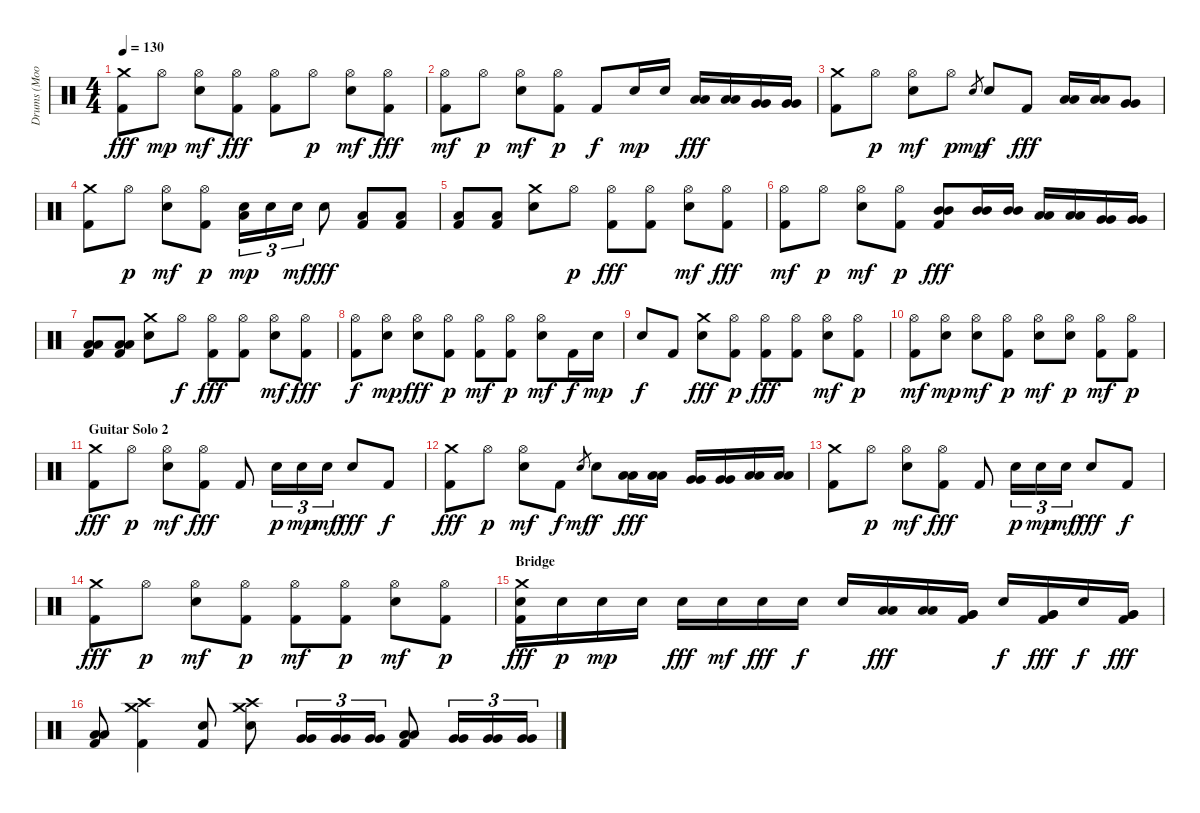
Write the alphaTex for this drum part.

\track ("Drums (Moon (Who else?))" "Drums (Moo") {instrument percussion}
\staff {score}
\articulation defaults
\ts (4 4)
\tempo 130
\clef neutral
\ks c
("Crash medium (hit)" "Kick (hit) 2").8{dy fff} "Hi-Hat (open)".8{dy mp} ("Hi-Hat (open)" "Snare (hit) 2").8{dy mf} ("Hi-Hat (open)" "Kick (hit) 2").8{dy fff} ("Hi-Hat (open)" "Kick (hit) 2").8 "Hi-Hat (open)".8{dy p} ("Hi-Hat (open)" "Snare (hit) 2").8{dy mf} ("Hi-Hat (open)" "Kick (hit) 2").8{dy fff} |
("Hi-Hat (open)" "Kick (hit) 2").8{dy mf} "Hi-Hat (open)".8{dy p} ("Hi-Hat (open)" "Snare (hit) 2").8{dy mf} ("Hi-Hat (open)" "Kick (hit) 2").8{dy p} "Kick (hit) 2".8{dy f} "Snare (hit) 2".16{dy mp} "Snare (hit) 2".16 ("Low Tom (hit)" "Low Tom (hit)").16{dy fff} ("Low Tom (hit)" "Low Tom (hit)").16 ("Very Low Tom (hit)" "Very Low Tom (hit)").16 ("Very Low Tom (hit)" "Very Low Tom (hit)").16 |
("Crash medium (hit)" "Kick (hit) 2").8 "Hi-Hat (open)".8{dy p} ("Hi-Hat (open)" "Snare (hit) 2").8{dy mf} "Hi-Hat (open)".8{dy p} "Snare (hit) 2".8{gr dy mp} "Snare (hit) 2".8{dy f} "Kick (hit) 2".8{dy fff} ("Low Tom (hit)" "Low Tom (hit)").16 ("Low Tom (hit)" "Low Tom (hit)").16 ("Very Low Tom (hit)" "Very Low Tom (hit)").8 |
("Crash medium (hit)" "Kick (hit) 2").8 "Hi-Hat (open)".8{dy p} ("Hi-Hat (open)" "Snare (hit) 2").8{dy mf} ("Hi-Hat (open)" "Kick (hit) 2").8{dy p} ("Low Tom (hit)" "Snare (hit) 2").16{tu (3 2) dy mp} "Snare (hit) 2".16{tu (3 2)} "Snare (hit) 2".16{tu (3 2) dy mf} "Snare (hit) 2".8{dy fff} ("Low Floor Tom (hit)" "Kick (hit) 2").8 ("Low Floor Tom (hit)" "Kick (hit) 2").8 |
("Low Floor Tom (hit)" "Kick (hit) 2").8 ("Low Floor Tom (hit)" "Kick (hit) 2").8 ("Crash medium (hit)" "Snare (hit) 2").8 "Hi-Hat (open)".8{dy p} ("Hi-Hat (open)" "Kick (hit) 2").8{dy fff} ("Hi-Hat (open)" "Kick (hit) 2").8 ("Hi-Hat (open)" "Snare (hit) 2").8{dy mf} ("Hi-Hat (open)" "Kick (hit) 2").8{dy fff} |
("Hi-Hat (open)" "Kick (hit) 2").8{dy mf} "Hi-Hat (open)".8{dy p} ("Hi-Hat (open)" "Snare (hit) 2").8{dy mf} ("Hi-Hat (open)" "Kick (hit) 2").8{dy p} ("Mid Tom (hit)" "Mid Tom (hit)" "Kick (hit) 2").8{dy fff} ("Mid Tom (hit)" "Mid Tom (hit)").16 ("Mid Tom (hit)" "Mid Tom (hit)").16 ("Low Tom (hit)" "Low Tom (hit)").16 ("Low Tom (hit)" "Low Tom (hit)").16 ("Very Low Tom (hit)" "Very Low Tom (hit)").16 ("Very Low Tom (hit)" "Very Low Tom (hit)").16 |
("Low Floor Tom (hit)" "Low Floor Tom (hit)" "Kick (hit) 2").8 ("Low Floor Tom (hit)" "Low Floor Tom (hit)" "Kick (hit) 2").8 ("Crash medium (hit)" "Snare (hit) 2").8 "Hi-Hat (open)".8{dy f} ("Hi-Hat (open)" "Kick (hit) 2").8{dy fff} ("Hi-Hat (open)" "Kick (hit) 2").8 ("Hi-Hat (open)" "Snare (hit) 2").8{dy mf} ("Hi-Hat (open)" "Kick (hit) 2").8{dy fff} |
("Hi-Hat (open)" "Kick (hit) 2").8{dy f} ("Hi-Hat (open)" "Snare (hit) 2").8{dy mp} ("Hi-Hat (open)" "Snare (hit) 2").8{dy fff} ("Hi-Hat (open)" "Kick (hit) 2").8{dy p} ("Hi-Hat (open)" "Kick (hit) 2").8{dy mf} ("Hi-Hat (open)" "Kick (hit) 2").8{dy p} ("Hi-Hat (open)" "Snare (hit) 2").8{dy mf} "Kick (hit) 2".16{dy f} "Snare (hit) 2".16{dy mp} |
"Snare (hit) 2".8{dy f} "Kick (hit) 2".8 ("Crash medium (hit)" "Snare (hit) 2").8{dy fff} ("Hi-Hat (open)" "Kick (hit) 2").8{dy p} ("Hi-Hat (open)" "Kick (hit) 2").8{dy fff} ("Hi-Hat (open)" "Kick (hit) 2").8 ("Hi-Hat (open)" "Snare (hit) 2").8{dy mf} ("Hi-Hat (open)" "Kick (hit) 2").8{dy p} |
("Hi-Hat (open)" "Kick (hit) 2").8{dy mf} ("Hi-Hat (open)" "Snare (hit) 2").8{dy mp} ("Hi-Hat (open)" "Snare (hit) 2").8{dy mf} ("Hi-Hat (open)" "Kick (hit) 2").8{dy p} ("Hi-Hat (open)" "Snare (hit) 2").8{dy mf} ("Hi-Hat (open)" "Snare (hit) 2").8{dy p} ("Hi-Hat (open)" "Kick (hit) 2").8{dy mf} ("Hi-Hat (open)" "Kick (hit) 2").8{dy p} |
\section ("" "Guitar Solo 2")
("Crash medium (hit)" "Kick (hit) 2").8{dy fff} "Hi-Hat (open)".8{dy p} ("Hi-Hat (open)" "Snare (hit) 2").8{dy mf} ("Hi-Hat (open)" "Kick (hit) 2").8{dy fff} "Kick (hit) 2".8 "Snare (hit) 2".16{tu (3 2) dy p} "Snare (hit) 2".16{tu (3 2) dy mp} "Snare (hit) 2".16{tu (3 2) dy mf} "Snare (hit) 2".8{dy fff} "Kick (hit) 2".8{dy f} |
("Crash medium (hit)" "Kick (hit) 2").8{dy fff} "Hi-Hat (open)".8{dy p} ("Hi-Hat (open)" "Snare (hit) 2").8{dy mf} "Kick (hit) 2".8{dy f} "Snare (hit) 2".8{gr dy mf} "Snare (hit) 2".8{dy f} ("Low Tom (hit)" "Low Tom (hit)").16{dy fff} ("Low Tom (hit)" "Low Tom (hit)").16 ("Very Low Tom (hit)" "Very Low Tom (hit)").16 ("Very Low Tom (hit)" "Very Low Tom (hit)").16 ("Low Floor Tom (hit)" "Low Floor Tom (hit)").16 ("Low Floor Tom (hit)" "Low Floor Tom (hit)").16 |
("Crash medium (hit)" "Kick (hit) 2").8 "Hi-Hat (open)".8{dy p} ("Hi-Hat (open)" "Snare (hit) 2").8{dy mf} ("Hi-Hat (open)" "Kick (hit) 2").8{dy fff} "Kick (hit) 2".8 "Snare (hit) 2".16{tu (3 2) dy p} "Snare (hit) 2".16{tu (3 2) dy mp} "Snare (hit) 2".16{tu (3 2) dy mf} "Snare (hit) 2".8{dy fff} "Kick (hit) 2".8{dy f} |
("Crash medium (hit)" "Kick (hit) 2").8{dy fff} "Hi-Hat (open)".8{dy p} ("Hi-Hat (open)" "Snare (hit) 2").8{dy mf} ("Hi-Hat (open)" "Kick (hit) 2").8{dy p} ("Hi-Hat (open)" "Kick (hit) 2").8{dy mf} ("Hi-Hat (open)" "Kick (hit) 2").8{dy p} ("Hi-Hat (open)" "Snare (hit) 2").8{dy mf} ("Hi-Hat (open)" "Kick (hit) 2").8{dy p} |
\section ("" "Bridge")
("Crash medium (hit)" "Snare (hit) 2" "Kick (hit) 2").16{dy fff volume 16} "Snare (hit) 2".16{dy p} "Snare (hit) 2".16{dy mp} "Snare (hit) 2".16 "Snare (hit) 2".16{dy fff} "Snare (hit) 2".16{dy mf} "Snare (hit) 2".16{dy fff} "Snare (hit) 2".16{dy f} "Snare (hit) 2".16 ("Low Tom (hit)" "Low Tom (hit)").16{dy fff} ("Low Tom (hit)" "Low Tom (hit)").16 ("Very Low Tom (hit)" "Very Low Tom (hit)" "Kick (hit) 2").16 "Snare (hit) 2".16{dy f} ("Very Low Tom (hit)" "Very Low Tom (hit)" "Kick (hit) 2").16{dy fff} "Snare (hit) 2".16{dy f} ("Very Low Tom (hit)" "Very Low Tom (hit)" "Kick (hit) 2").16{dy fff} |
("Low Floor Tom (hit)" "Low Floor Tom (hit)" "Kick (hit) 2").8 ("Crash medium (hit)" "Crash high (hit)" "Kick (hit) 2").4 ("Snare (hit) 2" "Kick (hit) 2").8 ("Crash medium (hit)" "Crash high (hit)" "Snare (hit) 2").8 ("Very Low Tom (hit)" "Very Low Tom (hit)").16{tu (3 2)} ("Very Low Tom (hit)" "Very Low Tom (hit)").16{tu (3 2)} ("Very Low Tom (hit)" "Very Low Tom (hit)").16{tu (3 2)} ("Low Floor Tom (hit)" "Low Floor Tom (hit)" "Kick (hit) 2").8 ("Very Low Tom (hit)" "Very Low Tom (hit)").16{tu (3 2)} ("Very Low Tom (hit)" "Very Low Tom (hit)").16{tu (3 2)} ("Very Low Tom (hit)" "Very Low Tom (hit)").16{tu (3 2)}
